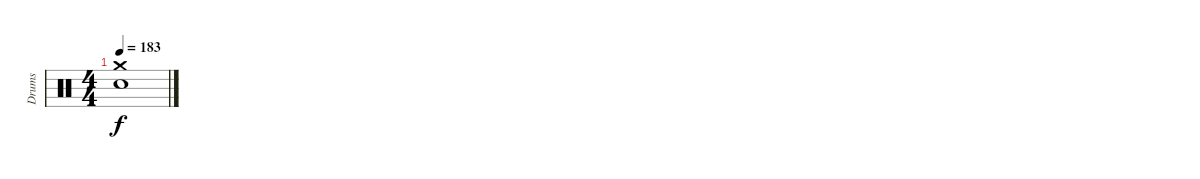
\track ("Drums" "Drums") {instrument percussion}
\staff {score}
\articulation defaults
\ts (4 4)
\tempo 183
\clef neutral
\ks c
("Crash medium (hit)" "Snare (hit) 2").1{dy f}
